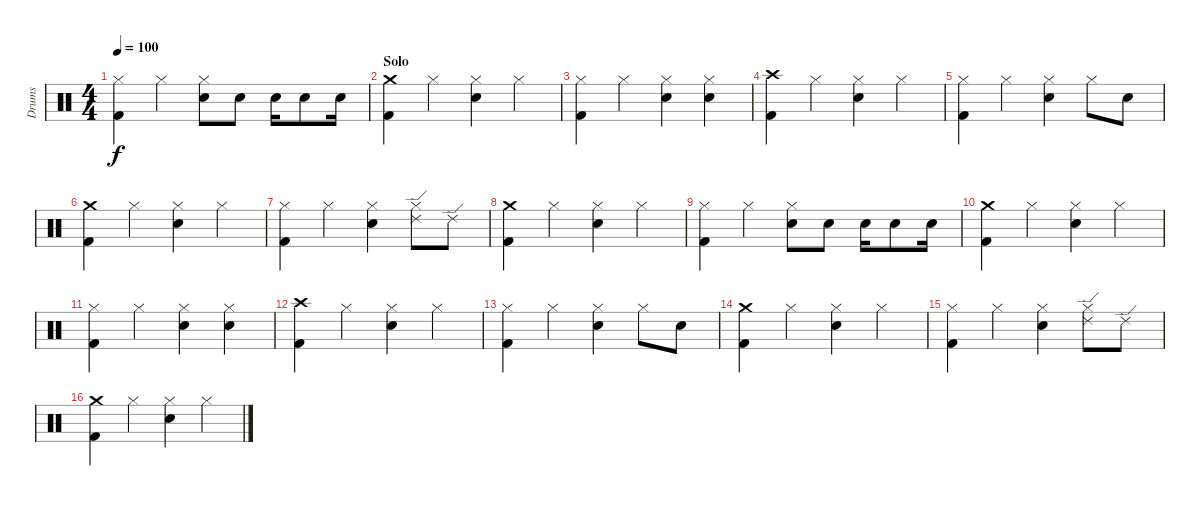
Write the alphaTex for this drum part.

\track ("Drums" "Drums") {instrument percussion}
\staff {score}
\articulation defaults
\ts (4 4)
\tempo 100
\clef neutral
\ks c
("Hi-Hat (closed)" "Kick (hit) 2").4{dy f} "Hi-Hat (closed)".4 ("Hi-Hat (closed)" "Snare (hit) 2").8 "Snare (hit) 2".8 "Snare (hit) 2".16 "Snare (hit) 2".8 "Snare (hit) 2".16 |
\section ("" "Solo")
("Crash medium (hit)" "Kick (hit) 2").4 "Hi-Hat (closed)".4 ("Hi-Hat (closed)" "Snare (hit) 2").4 "Hi-Hat (closed)".4 |
("Hi-Hat (closed)" "Kick (hit) 2").4 "Hi-Hat (closed)".4 ("Hi-Hat (closed)" "Snare (hit) 2").4 ("Hi-Hat (closed)" "Snare (hit) 2").4 |
("Crash high (hit)" "Kick (hit) 2").4 "Hi-Hat (closed)".4 ("Hi-Hat (closed)" "Snare (hit) 2").4 "Hi-Hat (closed)".4 |
("Hi-Hat (closed)" "Kick (hit) 2").4 "Hi-Hat (closed)".4 ("Hi-Hat (closed)" "Snare (hit) 2").4 "Hi-Hat (closed)".8 "Snare (hit) 2".8 |
("Crash medium (hit)" "Kick (hit) 2").4 "Hi-Hat (closed)".4 ("Hi-Hat (closed)" "Snare (hit) 2").4 "Hi-Hat (closed)".4 |
("Hi-Hat (closed)" "Kick (hit) 2").4 "Hi-Hat (closed)".4 ("Hi-Hat (closed)" "Snare (hit) 2").4 ("Hi-Hat (closed)" "Ride (edge) 2").8 "Ride (edge) 2".8 |
("Crash medium (hit)" "Kick (hit) 2").4 "Hi-Hat (closed)".4 ("Hi-Hat (closed)" "Snare (hit) 2").4 "Hi-Hat (closed)".4 |
("Hi-Hat (closed)" "Kick (hit) 2").4 "Hi-Hat (closed)".4 ("Hi-Hat (closed)" "Snare (hit) 2").8 "Snare (hit) 2".8 "Snare (hit) 2".16 "Snare (hit) 2".8 "Snare (hit) 2".16 |
("Crash medium (hit)" "Kick (hit) 2").4 "Hi-Hat (closed)".4 ("Hi-Hat (closed)" "Snare (hit) 2").4 "Hi-Hat (closed)".4 |
("Hi-Hat (closed)" "Kick (hit) 2").4 "Hi-Hat (closed)".4 ("Hi-Hat (closed)" "Snare (hit) 2").4 ("Hi-Hat (closed)" "Snare (hit) 2").4 |
("Crash high (hit)" "Kick (hit) 2").4 "Hi-Hat (closed)".4 ("Hi-Hat (closed)" "Snare (hit) 2").4 "Hi-Hat (closed)".4 |
("Hi-Hat (closed)" "Kick (hit) 2").4 "Hi-Hat (closed)".4 ("Hi-Hat (closed)" "Snare (hit) 2").4 "Hi-Hat (closed)".8 "Snare (hit) 2".8 |
("Crash medium (hit)" "Kick (hit) 2").4 "Hi-Hat (closed)".4 ("Hi-Hat (closed)" "Snare (hit) 2").4 "Hi-Hat (closed)".4 |
("Hi-Hat (closed)" "Kick (hit) 2").4 "Hi-Hat (closed)".4 ("Hi-Hat (closed)" "Snare (hit) 2").4 ("Hi-Hat (closed)" "Ride (edge) 2").8 "Ride (edge) 2".8 |
("Crash medium (hit)" "Kick (hit) 2").4 "Hi-Hat (closed)".4 ("Hi-Hat (closed)" "Snare (hit) 2").4 "Hi-Hat (closed)".4
